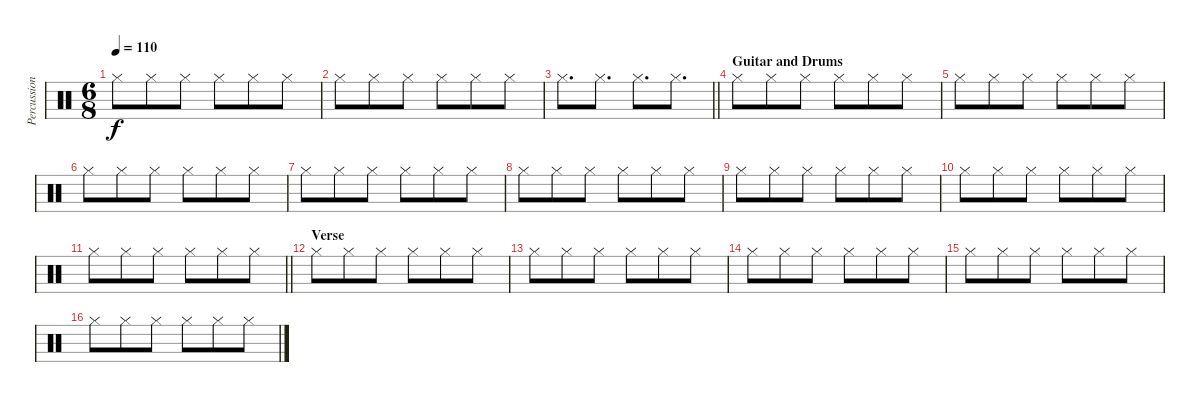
\track ("Percussion" "Percussion") {instrument percussion}
\staff {score}
\articulation defaults
\ts (6 8)
\tempo 110
\clef neutral
\ks c "Hi-Hat (closed)".8{dy f} "Hi-Hat (closed)".8 "Hi-Hat (closed)".8 "Hi-Hat (closed)".8 "Hi-Hat (closed)".8 "Hi-Hat (closed)".8
|
"Hi-Hat (closed)".8 "Hi-Hat (closed)".8 "Hi-Hat (closed)".8 "Hi-Hat (closed)".8 "Hi-Hat (closed)".8 "Hi-Hat (closed)".8 |
\barLineRight lightlight "Hi-Hat (closed)".8{d} "Hi-Hat (closed)".8{d} "Hi-Hat (closed)".8{d} "Hi-Hat (closed)".8{d}
|
\section ("" "Guitar and Drums")
"Hi-Hat (closed)".8 "Hi-Hat (closed)".8 "Hi-Hat (closed)".8 "Hi-Hat (closed)".8 "Hi-Hat (closed)".8 "Hi-Hat (closed)".8 |
"Hi-Hat (closed)".8 "Hi-Hat (closed)".8 "Hi-Hat (closed)".8 "Hi-Hat (closed)".8 "Hi-Hat (closed)".8 "Hi-Hat (closed)".8 |
"Hi-Hat (closed)".8 "Hi-Hat (closed)".8 "Hi-Hat (closed)".8 "Hi-Hat (closed)".8 "Hi-Hat (closed)".8 "Hi-Hat (closed)".8 |
"Hi-Hat (closed)".8 "Hi-Hat (closed)".8 "Hi-Hat (closed)".8 "Hi-Hat (closed)".8 "Hi-Hat (closed)".8 "Hi-Hat (closed)".8 |
"Hi-Hat (closed)".8 "Hi-Hat (closed)".8 "Hi-Hat (closed)".8 "Hi-Hat (closed)".8 "Hi-Hat (closed)".8 "Hi-Hat (closed)".8 |
"Hi-Hat (closed)".8 "Hi-Hat (closed)".8 "Hi-Hat (closed)".8 "Hi-Hat (closed)".8 "Hi-Hat (closed)".8 "Hi-Hat (closed)".8 |
"Hi-Hat (closed)".8 "Hi-Hat (closed)".8 "Hi-Hat (closed)".8 "Hi-Hat (closed)".8 "Hi-Hat (closed)".8 "Hi-Hat (closed)".8 |
\barLineRight lightlight "Hi-Hat (closed)".8 "Hi-Hat (closed)".8 "Hi-Hat (closed)".8 "Hi-Hat (closed)".8 "Hi-Hat (closed)".8 "Hi-Hat (closed)".8
|
\section ("" "Verse")
"Hi-Hat (closed)".8 "Hi-Hat (closed)".8 "Hi-Hat (closed)".8 "Hi-Hat (closed)".8 "Hi-Hat (closed)".8 "Hi-Hat (closed)".8 |
"Hi-Hat (closed)".8 "Hi-Hat (closed)".8 "Hi-Hat (closed)".8 "Hi-Hat (closed)".8 "Hi-Hat (closed)".8 "Hi-Hat (closed)".8 |
"Hi-Hat (closed)".8 "Hi-Hat (closed)".8 "Hi-Hat (closed)".8 "Hi-Hat (closed)".8 "Hi-Hat (closed)".8 "Hi-Hat (closed)".8 |
"Hi-Hat (closed)".8 "Hi-Hat (closed)".8 "Hi-Hat (closed)".8 "Hi-Hat (closed)".8 "Hi-Hat (closed)".8 "Hi-Hat (closed)".8 |
"Hi-Hat (closed)".8 "Hi-Hat (closed)".8 "Hi-Hat (closed)".8 "Hi-Hat (closed)".8 "Hi-Hat (closed)".8 "Hi-Hat (closed)".8
